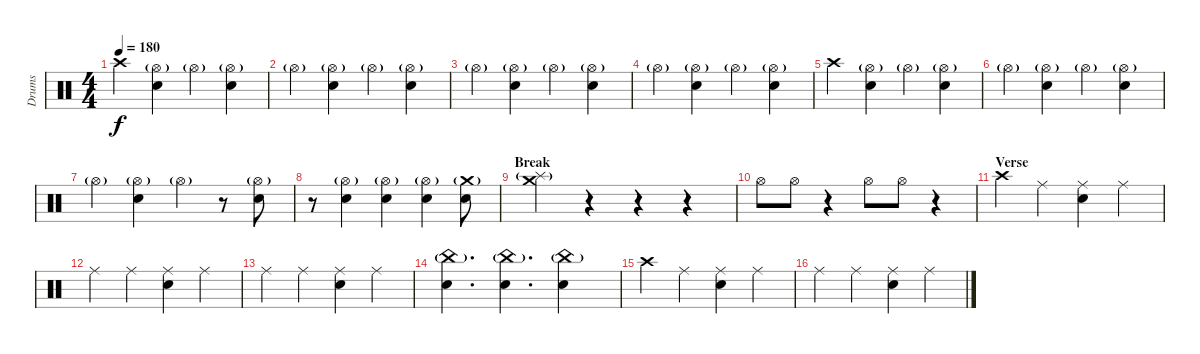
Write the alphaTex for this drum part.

\track ("Drums" "Drums") {instrument percussion}
\staff {score}
\articulation defaults
\ts (4 4)
\tempo 180
\clef neutral
\ks c "Crash high (hit)".4{dy f}
("Hi-Hat (open)"{g} "Electric Snare (hit)").4 "Hi-Hat (open)"{g}.4 ("Hi-Hat (open)"{g} "Electric Snare (hit)").4 |
"Hi-Hat (open)"{g}.4 ("Hi-Hat (open)"{g} "Electric Snare (hit)").4 "Hi-Hat (open)"{g}.4 ("Hi-Hat (open)"{g} "Electric Snare (hit)").4 |
"Hi-Hat (open)"{g}.4 ("Hi-Hat (open)"{g} "Electric Snare (hit)").4 "Hi-Hat (open)"{g}.4 ("Hi-Hat (open)"{g} "Electric Snare (hit)").4 |
"Hi-Hat (open)"{g}.4 ("Hi-Hat (open)"{g} "Electric Snare (hit)").4 "Hi-Hat (open)"{g}.4 ("Hi-Hat (open)"{g} "Electric Snare (hit)").4 |
"Crash high (hit)".4 ("Hi-Hat (open)"{g} "Electric Snare (hit)").4 "Hi-Hat (open)"{g}.4 ("Hi-Hat (open)"{g} "Electric Snare (hit)").4 |
"Hi-Hat (open)"{g}.4 ("Hi-Hat (open)"{g} "Electric Snare (hit)").4 "Hi-Hat (open)"{g}.4 ("Hi-Hat (open)"{g} "Electric Snare (hit)").4 |
"Hi-Hat (open)"{g}.4 ("Hi-Hat (open)"{g} "Electric Snare (hit)").4 "Hi-Hat (open)"{g}.4 r.8 ("Hi-Hat (open)"{g} "Electric Snare (hit)").8 |
r.8 ("Hi-Hat (open)"{g} "Electric Snare (hit)").4 ("Hi-Hat (open)"{g} "Electric Snare (hit)").4 ("Hi-Hat (open)"{g} "Electric Snare (hit)").4 ("Crash medium (hit)"{g} "Electric Snare (hit)").8 |
\section ("" "Break")
("Crash medium (hit)" "Splash (hit)"{g}).4 r.4 r.4 r.4 |
"Hi-Hat (open)".8 "Hi-Hat (open)".8 r.4 "Hi-Hat (open)".8 "Hi-Hat (open)".8 r.4 |
\section ("" "Verse")
"Crash high (hit)".4 "Ride (middle)".4 ("Ride (middle)" "Electric Snare (hit)").4 "Ride (middle)".4 |
"Ride (middle)".4 "Ride (middle)".4 ("Ride (middle)" "Electric Snare (hit)").4 "Ride (middle)".4 |
"Ride (middle)".4 "Ride (middle)".4 ("Ride (middle)" "Electric Snare (hit)").4 "Ride (middle)".4 |
("China (hit)"{g} "Electric Snare (hit)").4{d} ("China (hit)"{g} "Electric Snare (hit)").4{d} ("China (hit)"{g} "Electric Snare (hit)").4 |
"Crash high (hit)".4 "Ride (middle)".4 ("Ride (middle)" "Electric Snare (hit)").4 "Ride (middle)".4 |
"Ride (middle)".4 "Ride (middle)".4 ("Ride (middle)" "Electric Snare (hit)").4 "Ride (middle)".4
